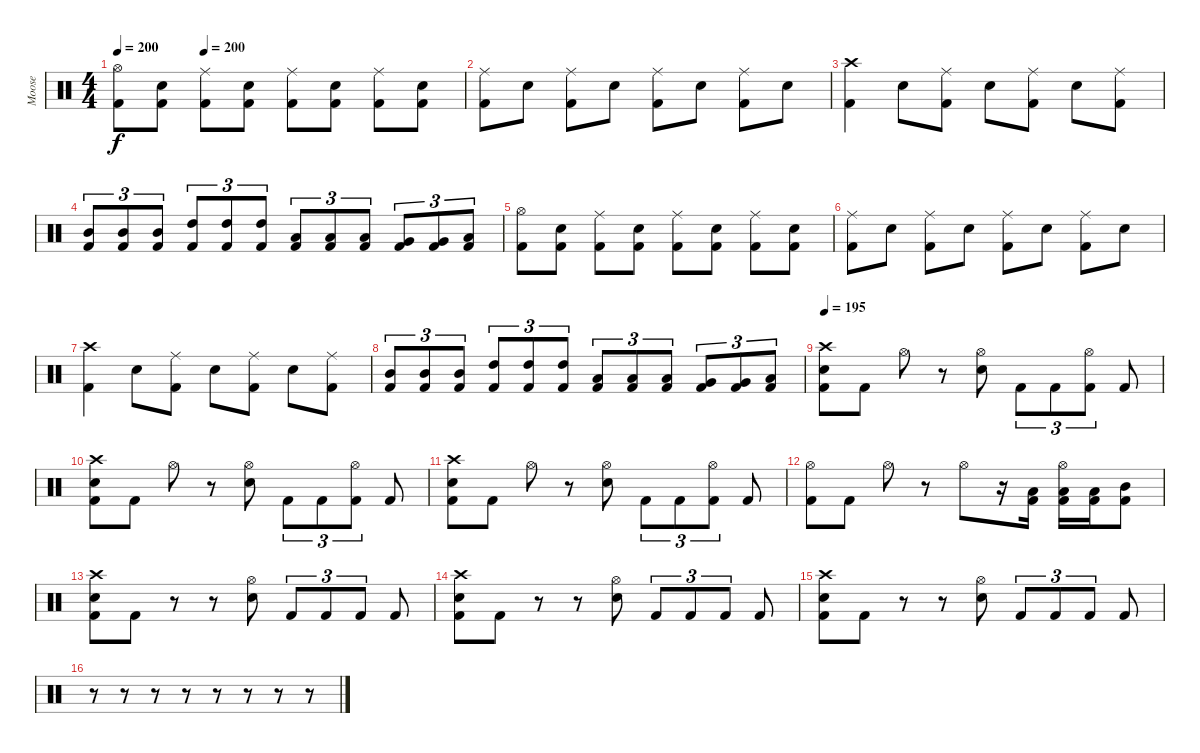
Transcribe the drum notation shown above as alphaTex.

\track ("Moose" "Moose") {instrument percussion}
\staff {score}
\articulation defaults
\ts (4 4)
\tempo 200
\tempo (200 0.25)
\clef neutral
\ks c
("Hi-Hat (open)" "Kick (hit) 2").8{dy f} ("Snare (hit) 2" "Kick (hit) 2").8 ("Ride (middle)" "Kick (hit) 2").8 ("Snare (hit) 2" "Kick (hit) 2").8 ("Ride (middle)" "Kick (hit) 2").8 ("Snare (hit) 2" "Kick (hit) 2").8 ("Ride (middle)" "Kick (hit) 2").8 ("Snare (hit) 2" "Kick (hit) 2").8 |
("Ride (middle)" "Kick (hit) 2").8 "Snare (hit) 2".8 ("Ride (middle)" "Kick (hit) 2").8 "Snare (hit) 2".8 ("Ride (middle)" "Kick (hit) 2").8 "Snare (hit) 2".8 ("Ride (middle)" "Kick (hit) 2").8 "Snare (hit) 2".8 |
("Crash high (hit)" "Kick (hit) 2").4 "Snare (hit) 2".8 ("Ride (middle)" "Kick (hit) 2").8 "Snare (hit) 2".8 ("Ride (middle)" "Kick (hit) 2").8 "Snare (hit) 2".8 ("Ride (middle)" "Kick (hit) 2").8 |
("Mid Tom (hit)" "Kick (hit) 2").8{tu (3 2)} ("Mid Tom (hit)" "Kick (hit) 2").8{tu (3 2)} ("Mid Tom (hit)" "Kick (hit) 2").8{tu (3 2)} ("High Tom (hit)" "Kick (hit) 2").8{tu (3 2)} ("High Tom (hit)" "Kick (hit) 2").8{tu (3 2)} ("High Tom (hit)" "Kick (hit) 2").8{tu (3 2)} ("Low Tom (hit)" "Kick (hit) 2").8{tu (3 2)} ("Low Tom (hit)" "Kick (hit) 2").8{tu (3 2)} ("Low Tom (hit)" "Kick (hit) 2").8{tu (3 2)} ("Very Low Tom (hit)" "Kick (hit) 2").8{tu (3 2)} ("Very Low Tom (hit)" "Kick (hit) 2").8{tu (3 2)} ("Low Floor Tom (hit)" "Kick (hit) 2").8{tu (3 2)} |
("Hi-Hat (open)" "Kick (hit) 2").8 ("Snare (hit) 2" "Kick (hit) 2").8 ("Ride (middle)" "Kick (hit) 2").8 ("Snare (hit) 2" "Kick (hit) 2").8 ("Ride (middle)" "Kick (hit) 2").8 ("Snare (hit) 2" "Kick (hit) 2").8 ("Ride (middle)" "Kick (hit) 2").8 ("Snare (hit) 2" "Kick (hit) 2").8 |
("Ride (middle)" "Kick (hit) 2").8 "Snare (hit) 2".8 ("Ride (middle)" "Kick (hit) 2").8 "Snare (hit) 2".8 ("Ride (middle)" "Kick (hit) 2").8 "Snare (hit) 2".8 ("Ride (middle)" "Kick (hit) 2").8 "Snare (hit) 2".8 |
("Crash high (hit)" "Kick (hit) 2").4 "Snare (hit) 2".8 ("Ride (middle)" "Kick (hit) 2").8 "Snare (hit) 2".8 ("Ride (middle)" "Kick (hit) 2").8 "Snare (hit) 2".8 ("Ride (middle)" "Kick (hit) 2").8 |
("Mid Tom (hit)" "Kick (hit) 2").8{tu (3 2)} ("Mid Tom (hit)" "Kick (hit) 2").8{tu (3 2)} ("Mid Tom (hit)" "Kick (hit) 2").8{tu (3 2)} ("High Tom (hit)" "Kick (hit) 2").8{tu (3 2)} ("High Tom (hit)" "Kick (hit) 2").8{tu (3 2)} ("High Tom (hit)" "Kick (hit) 2").8{tu (3 2)} ("Low Tom (hit)" "Kick (hit) 2").8{tu (3 2)} ("Low Tom (hit)" "Kick (hit) 2").8{tu (3 2)} ("Low Tom (hit)" "Kick (hit) 2").8{tu (3 2)} ("Very Low Tom (hit)" "Kick (hit) 2").8{tu (3 2)} ("Very Low Tom (hit)" "Kick (hit) 2").8{tu (3 2)} ("Low Floor Tom (hit)" "Kick (hit) 2").8{tu (3 2)} |
\tempo 195
("Crash high (hit)" "Snare (hit) 2" "Kick (hit) 2").8 "Kick (hit) 2".8 "Hi-Hat (open)".8 r.8 ("Hi-Hat (open)" "Snare (hit) 2").8 "Kick (hit) 2".8{tu (3 2)} "Kick (hit) 2".8{tu (3 2)} ("Hi-Hat (open)" "Kick (hit) 2").8{tu (3 2)} "Kick (hit) 2".8 |
("Crash high (hit)" "Snare (hit) 2" "Kick (hit) 2").8 "Kick (hit) 2".8 "Hi-Hat (open)".8 r.8 ("Hi-Hat (open)" "Snare (hit) 2").8 "Kick (hit) 2".8{tu (3 2)} "Kick (hit) 2".8{tu (3 2)} ("Hi-Hat (open)" "Kick (hit) 2").8{tu (3 2)} "Kick (hit) 2".8 |
("Crash high (hit)" "Snare (hit) 2" "Kick (hit) 2").8 "Kick (hit) 2".8 "Hi-Hat (open)".8 r.8 ("Hi-Hat (open)" "Snare (hit) 2").8 "Kick (hit) 2".8{tu (3 2)} "Kick (hit) 2".8{tu (3 2)} ("Hi-Hat (open)" "Kick (hit) 2").8{tu (3 2)} "Kick (hit) 2".8 |
("Hi-Hat (open)" "Kick (hit) 2").8 "Kick (hit) 2".8 "Hi-Hat (open)".8 r.8 "Hi-Hat (open)".8 r.16 ("Low Tom (hit)" "Kick (hit) 2").16 ("Hi-Hat (open)" "Low Tom (hit)" "Kick (hit) 2").16 ("Low Tom (hit)" "Kick (hit) 2").16 ("Mid Tom (hit)" "Kick (hit) 2").8 |
("Crash high (hit)" "Snare (hit) 2" "Kick (hit) 2").8 "Kick (hit) 2".8 r.8 r.8 ("Hi-Hat (open)" "Snare (hit) 2").8 "Kick (hit) 2".8{tu (3 2)} "Kick (hit) 2".8{tu (3 2)} "Kick (hit) 2".8{tu (3 2)} "Kick (hit) 2".8 |
("Crash high (hit)" "Snare (hit) 2" "Kick (hit) 2").8 "Kick (hit) 2".8 r.8 r.8 ("Hi-Hat (open)" "Snare (hit) 2").8 "Kick (hit) 2".8{tu (3 2)} "Kick (hit) 2".8{tu (3 2)} "Kick (hit) 2".8{tu (3 2)} "Kick (hit) 2".8 |
("Crash high (hit)" "Snare (hit) 2" "Kick (hit) 2").8 "Kick (hit) 2".8 r.8 r.8 ("Hi-Hat (open)" "Snare (hit) 2").8 "Kick (hit) 2".8{tu (3 2)} "Kick (hit) 2".8{tu (3 2)} "Kick (hit) 2".8{tu (3 2)} "Kick (hit) 2".8 |
r.8 r.8 r.8 r.8 r.8 r.8 r.8 r.8
